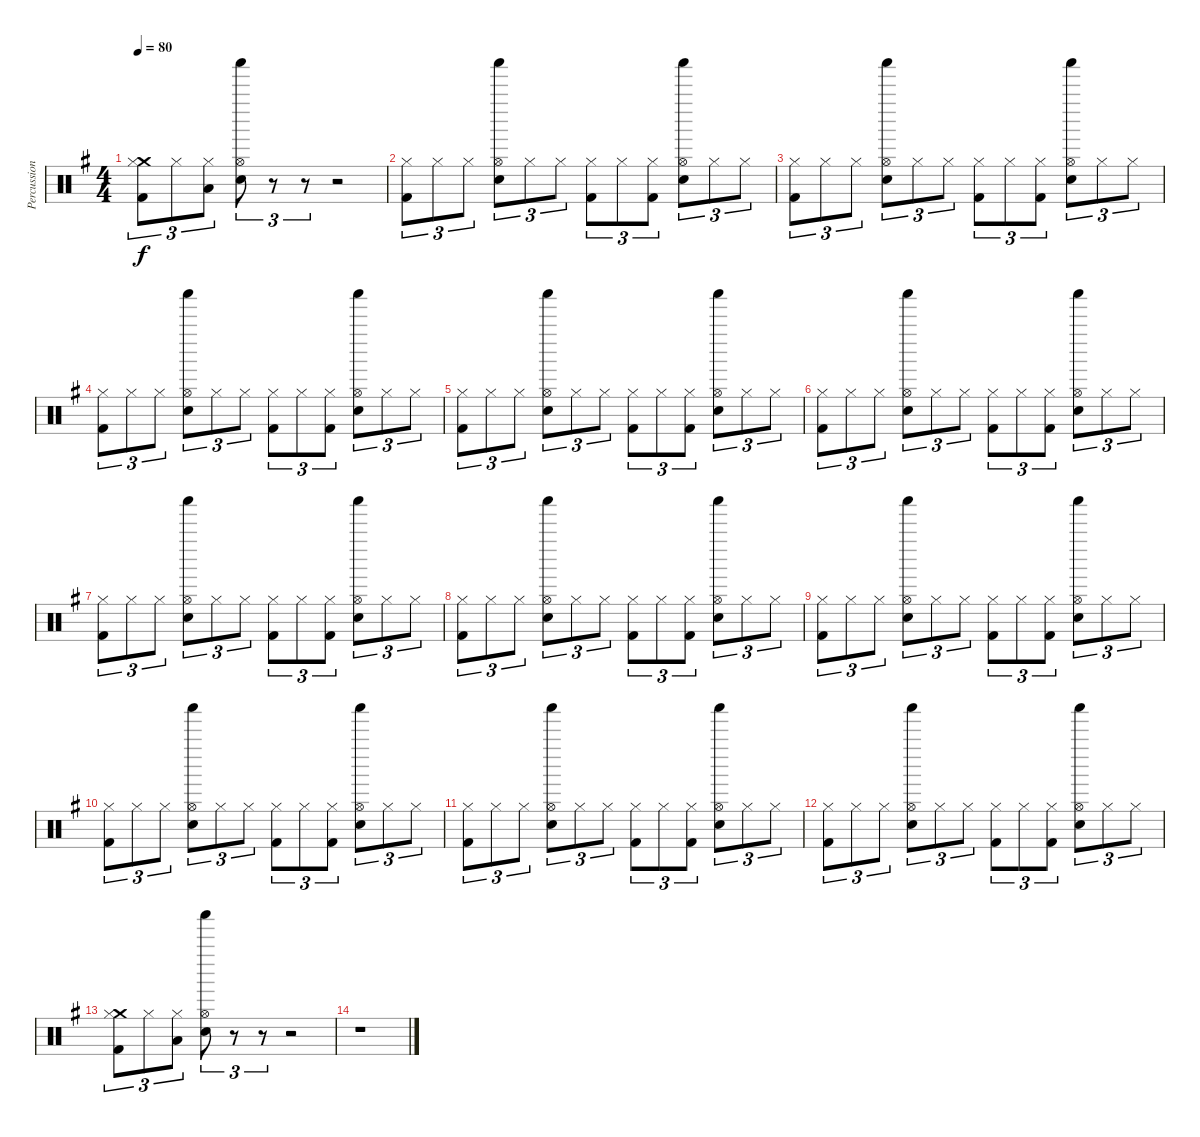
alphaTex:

\track ("Percussion" "Percussion") {instrument percussion}
\staff {score}
\articulation defaults
\ts (4 4)
\tempo 80
\clef neutral
\ks g
("Crash medium (hit)" "Kick (hit) 2" "Hi-Hat (closed)").8{tu (3 2) dy f} "Hi-Hat (closed)".8{tu (3 2)} ("Low Tom (hit)" "Hi-Hat (closed)").8{tu (3 2)} ("Electric Snare (hit)" "Shaker (hit)" "Hi-Hat (open)").8{tu (3 2)} r.8{tu (3 2)} r.8{tu (3 2)} r.2 |
("Kick (hit) 2" "Hi-Hat (closed)").8{tu (3 2)} "Hi-Hat (closed)".8{tu (3 2)} "Hi-Hat (closed)".8{tu (3 2)} ("Electric Snare (hit)" "Shaker (hit)" "Hi-Hat (open)").8{tu (3 2)} "Hi-Hat (closed)".8{tu (3 2)} "Hi-Hat (closed)".8{tu (3 2)} ("Kick (hit) 2" "Hi-Hat (closed)").8{tu (3 2)} "Hi-Hat (closed)".8{tu (3 2)} ("Kick (hit) 2" "Hi-Hat (closed)").8{tu (3 2)} ("Electric Snare (hit)" "Shaker (hit)" "Hi-Hat (open)").8{tu (3 2)} "Hi-Hat (closed)".8{tu (3 2)} "Hi-Hat (closed)".8{tu (3 2)} |
("Kick (hit) 2" "Hi-Hat (closed)").8{tu (3 2)} "Hi-Hat (closed)".8{tu (3 2)} "Hi-Hat (closed)".8{tu (3 2)} ("Electric Snare (hit)" "Shaker (hit)" "Hi-Hat (open)").8{tu (3 2)} "Hi-Hat (closed)".8{tu (3 2)} "Hi-Hat (closed)".8{tu (3 2)} ("Kick (hit) 2" "Hi-Hat (closed)").8{tu (3 2)} "Hi-Hat (closed)".8{tu (3 2)} ("Kick (hit) 2" "Hi-Hat (closed)").8{tu (3 2)} ("Electric Snare (hit)" "Shaker (hit)" "Hi-Hat (open)").8{tu (3 2)} "Hi-Hat (closed)".8{tu (3 2)} "Hi-Hat (closed)".8{tu (3 2)} |
("Kick (hit) 2" "Hi-Hat (closed)").8{tu (3 2)} "Hi-Hat (closed)".8{tu (3 2)} "Hi-Hat (closed)".8{tu (3 2)} ("Electric Snare (hit)" "Shaker (hit)" "Hi-Hat (open)").8{tu (3 2)} "Hi-Hat (closed)".8{tu (3 2)} "Hi-Hat (closed)".8{tu (3 2)} ("Kick (hit) 2" "Hi-Hat (closed)").8{tu (3 2)} "Hi-Hat (closed)".8{tu (3 2)} ("Kick (hit) 2" "Hi-Hat (closed)").8{tu (3 2)} ("Electric Snare (hit)" "Shaker (hit)" "Hi-Hat (open)").8{tu (3 2)} "Hi-Hat (closed)".8{tu (3 2)} "Hi-Hat (closed)".8{tu (3 2)} |
("Kick (hit) 2" "Hi-Hat (closed)").8{tu (3 2)} "Hi-Hat (closed)".8{tu (3 2)} "Hi-Hat (closed)".8{tu (3 2)} ("Electric Snare (hit)" "Shaker (hit)" "Hi-Hat (open)").8{tu (3 2)} "Hi-Hat (closed)".8{tu (3 2)} "Hi-Hat (closed)".8{tu (3 2)} ("Kick (hit) 2" "Hi-Hat (closed)").8{tu (3 2)} "Hi-Hat (closed)".8{tu (3 2)} ("Kick (hit) 2" "Hi-Hat (closed)").8{tu (3 2)} ("Electric Snare (hit)" "Shaker (hit)" "Hi-Hat (open)").8{tu (3 2)} "Hi-Hat (closed)".8{tu (3 2)} "Hi-Hat (closed)".8{tu (3 2)} |
("Kick (hit) 2" "Hi-Hat (closed)").8{tu (3 2)} "Hi-Hat (closed)".8{tu (3 2)} "Hi-Hat (closed)".8{tu (3 2)} ("Electric Snare (hit)" "Shaker (hit)" "Hi-Hat (open)").8{tu (3 2)} "Hi-Hat (closed)".8{tu (3 2)} "Hi-Hat (closed)".8{tu (3 2)} ("Kick (hit) 2" "Hi-Hat (closed)").8{tu (3 2)} "Hi-Hat (closed)".8{tu (3 2)} ("Kick (hit) 2" "Hi-Hat (closed)").8{tu (3 2)} ("Electric Snare (hit)" "Shaker (hit)" "Hi-Hat (open)").8{tu (3 2)} "Hi-Hat (closed)".8{tu (3 2)} "Hi-Hat (closed)".8{tu (3 2)} |
("Kick (hit) 2" "Hi-Hat (closed)").8{tu (3 2)} "Hi-Hat (closed)".8{tu (3 2)} "Hi-Hat (closed)".8{tu (3 2)} ("Electric Snare (hit)" "Shaker (hit)" "Hi-Hat (open)").8{tu (3 2)} "Hi-Hat (closed)".8{tu (3 2)} "Hi-Hat (closed)".8{tu (3 2)} ("Kick (hit) 2" "Hi-Hat (closed)").8{tu (3 2)} "Hi-Hat (closed)".8{tu (3 2)} ("Kick (hit) 2" "Hi-Hat (closed)").8{tu (3 2)} ("Electric Snare (hit)" "Shaker (hit)" "Hi-Hat (open)").8{tu (3 2)} "Hi-Hat (closed)".8{tu (3 2)} "Hi-Hat (closed)".8{tu (3 2)} |
("Kick (hit) 2" "Hi-Hat (closed)").8{tu (3 2)} "Hi-Hat (closed)".8{tu (3 2)} "Hi-Hat (closed)".8{tu (3 2)} ("Electric Snare (hit)" "Shaker (hit)" "Hi-Hat (open)").8{tu (3 2)} "Hi-Hat (closed)".8{tu (3 2)} "Hi-Hat (closed)".8{tu (3 2)} ("Kick (hit) 2" "Hi-Hat (closed)").8{tu (3 2)} "Hi-Hat (closed)".8{tu (3 2)} ("Kick (hit) 2" "Hi-Hat (closed)").8{tu (3 2)} ("Electric Snare (hit)" "Shaker (hit)" "Hi-Hat (open)").8{tu (3 2)} "Hi-Hat (closed)".8{tu (3 2)} "Hi-Hat (closed)".8{tu (3 2)} |
("Kick (hit) 2" "Hi-Hat (closed)").8{tu (3 2)} "Hi-Hat (closed)".8{tu (3 2)} "Hi-Hat (closed)".8{tu (3 2)} ("Electric Snare (hit)" "Shaker (hit)" "Hi-Hat (open)").8{tu (3 2)} "Hi-Hat (closed)".8{tu (3 2)} "Hi-Hat (closed)".8{tu (3 2)} ("Kick (hit) 2" "Hi-Hat (closed)").8{tu (3 2)} "Hi-Hat (closed)".8{tu (3 2)} ("Kick (hit) 2" "Hi-Hat (closed)").8{tu (3 2)} ("Electric Snare (hit)" "Shaker (hit)" "Hi-Hat (open)").8{tu (3 2)} "Hi-Hat (closed)".8{tu (3 2)} "Hi-Hat (closed)".8{tu (3 2)} |
("Kick (hit) 2" "Hi-Hat (closed)").8{tu (3 2)} "Hi-Hat (closed)".8{tu (3 2)} "Hi-Hat (closed)".8{tu (3 2)} ("Electric Snare (hit)" "Shaker (hit)" "Hi-Hat (open)").8{tu (3 2)} "Hi-Hat (closed)".8{tu (3 2)} "Hi-Hat (closed)".8{tu (3 2)} ("Kick (hit) 2" "Hi-Hat (closed)").8{tu (3 2)} "Hi-Hat (closed)".8{tu (3 2)} ("Kick (hit) 2" "Hi-Hat (closed)").8{tu (3 2)} ("Electric Snare (hit)" "Shaker (hit)" "Hi-Hat (open)").8{tu (3 2)} "Hi-Hat (closed)".8{tu (3 2)} "Hi-Hat (closed)".8{tu (3 2)} |
("Kick (hit) 2" "Hi-Hat (closed)").8{tu (3 2)} "Hi-Hat (closed)".8{tu (3 2)} "Hi-Hat (closed)".8{tu (3 2)} ("Electric Snare (hit)" "Shaker (hit)" "Hi-Hat (open)").8{tu (3 2)} "Hi-Hat (closed)".8{tu (3 2)} "Hi-Hat (closed)".8{tu (3 2)} ("Kick (hit) 2" "Hi-Hat (closed)").8{tu (3 2)} "Hi-Hat (closed)".8{tu (3 2)} ("Kick (hit) 2" "Hi-Hat (closed)").8{tu (3 2)} ("Electric Snare (hit)" "Shaker (hit)" "Hi-Hat (open)").8{tu (3 2)} "Hi-Hat (closed)".8{tu (3 2)} "Hi-Hat (closed)".8{tu (3 2)} |
("Kick (hit) 2" "Hi-Hat (closed)").8{tu (3 2)} "Hi-Hat (closed)".8{tu (3 2)} "Hi-Hat (closed)".8{tu (3 2)} ("Electric Snare (hit)" "Shaker (hit)" "Hi-Hat (open)").8{tu (3 2)} "Hi-Hat (closed)".8{tu (3 2)} "Hi-Hat (closed)".8{tu (3 2)} ("Kick (hit) 2" "Hi-Hat (closed)").8{tu (3 2)} "Hi-Hat (closed)".8{tu (3 2)} ("Kick (hit) 2" "Hi-Hat (closed)").8{tu (3 2)} ("Electric Snare (hit)" "Shaker (hit)" "Hi-Hat (open)").8{tu (3 2)} "Hi-Hat (closed)".8{tu (3 2)} "Hi-Hat (closed)".8{tu (3 2)} |
("Crash medium (hit)" "Kick (hit) 2" "Hi-Hat (closed)").8{tu (3 2)} "Hi-Hat (closed)".8{tu (3 2)} ("Low Tom (hit)" "Hi-Hat (closed)").8{tu (3 2)} ("Electric Snare (hit)" "Shaker (hit)" "Hi-Hat (open)").8{tu (3 2)} r.8{tu (3 2)} r.8{tu (3 2)} r.2 |
r.1
